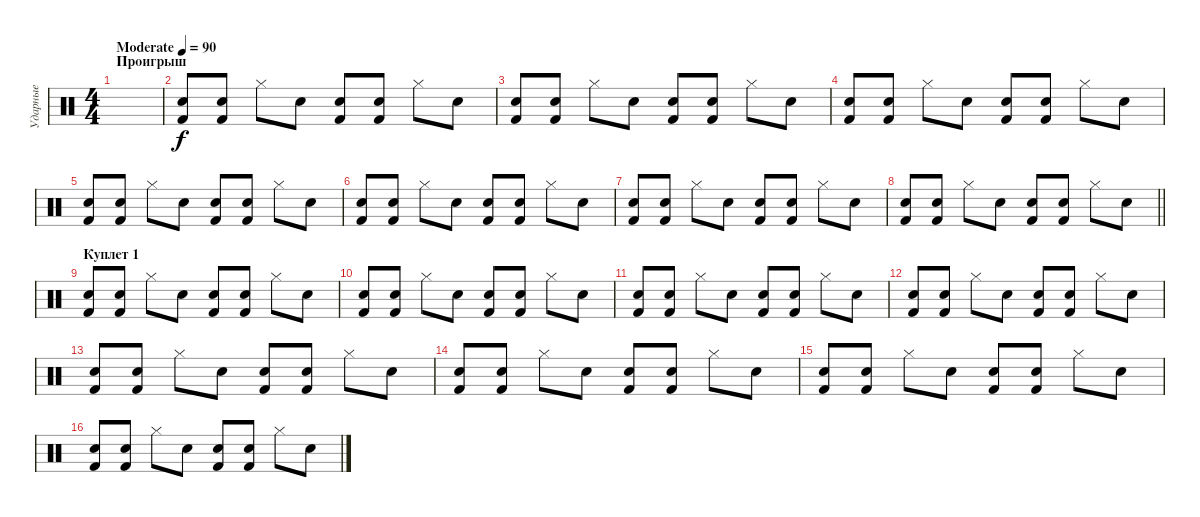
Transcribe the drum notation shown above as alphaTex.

\track ("Ударные" "Ударные") {instrument percussion}
\staff {score}
\articulation defaults
\ts (4 4)
\section ("" "Проигрыш")
\tempo (90 "Moderate")
\clef neutral
\ks c
|
("Kick (hit) 2" "Snare (hit) 2").8 ("Kick (hit) 2" "Snare (hit) 2").8 "Hi-Hat (closed)".8 "Snare (hit) 2".8 ("Kick (hit) 2" "Snare (hit) 2").8 ("Kick (hit) 2" "Snare (hit) 2").8 "Hi-Hat (closed)".8 "Snare (hit) 2".8 |
("Kick (hit) 2" "Snare (hit) 2").8 ("Kick (hit) 2" "Snare (hit) 2").8 "Hi-Hat (closed)".8 "Snare (hit) 2".8 ("Kick (hit) 2" "Snare (hit) 2").8 ("Kick (hit) 2" "Snare (hit) 2").8 "Hi-Hat (closed)".8 "Snare (hit) 2".8 |
("Kick (hit) 2" "Snare (hit) 2").8 ("Kick (hit) 2" "Snare (hit) 2").8 "Hi-Hat (closed)".8 "Snare (hit) 2".8 ("Kick (hit) 2" "Snare (hit) 2").8 ("Kick (hit) 2" "Snare (hit) 2").8 "Hi-Hat (closed)".8 "Snare (hit) 2".8 |
("Kick (hit) 2" "Snare (hit) 2").8 ("Kick (hit) 2" "Snare (hit) 2").8 "Hi-Hat (closed)".8 "Snare (hit) 2".8 ("Kick (hit) 2" "Snare (hit) 2").8 ("Kick (hit) 2" "Snare (hit) 2").8 "Hi-Hat (closed)".8 "Snare (hit) 2".8 |
("Kick (hit) 2" "Snare (hit) 2").8 ("Kick (hit) 2" "Snare (hit) 2").8 "Hi-Hat (closed)".8 "Snare (hit) 2".8 ("Kick (hit) 2" "Snare (hit) 2").8 ("Kick (hit) 2" "Snare (hit) 2").8 "Hi-Hat (closed)".8 "Snare (hit) 2".8 |
("Kick (hit) 2" "Snare (hit) 2").8 ("Kick (hit) 2" "Snare (hit) 2").8 "Hi-Hat (closed)".8 "Snare (hit) 2".8 ("Kick (hit) 2" "Snare (hit) 2").8 ("Kick (hit) 2" "Snare (hit) 2").8 "Hi-Hat (closed)".8 "Snare (hit) 2".8 |
\barLineRight lightlight
("Kick (hit) 2" "Snare (hit) 2").8 ("Kick (hit) 2" "Snare (hit) 2").8 "Hi-Hat (closed)".8 "Snare (hit) 2".8 ("Kick (hit) 2" "Snare (hit) 2").8 ("Kick (hit) 2" "Snare (hit) 2").8 "Hi-Hat (closed)".8 "Snare (hit) 2".8 |
\section ("" "Куплет 1")
("Kick (hit) 2" "Snare (hit) 2").8 ("Kick (hit) 2" "Snare (hit) 2").8 "Hi-Hat (closed)".8 "Snare (hit) 2".8 ("Kick (hit) 2" "Snare (hit) 2").8 ("Kick (hit) 2" "Snare (hit) 2").8 "Hi-Hat (closed)".8 "Snare (hit) 2".8 |
("Kick (hit) 2" "Snare (hit) 2").8 ("Kick (hit) 2" "Snare (hit) 2").8 "Hi-Hat (closed)".8 "Snare (hit) 2".8 ("Kick (hit) 2" "Snare (hit) 2").8 ("Kick (hit) 2" "Snare (hit) 2").8 "Hi-Hat (closed)".8 "Snare (hit) 2".8 |
("Kick (hit) 2" "Snare (hit) 2").8 ("Kick (hit) 2" "Snare (hit) 2").8 "Hi-Hat (closed)".8 "Snare (hit) 2".8 ("Kick (hit) 2" "Snare (hit) 2").8 ("Kick (hit) 2" "Snare (hit) 2").8 "Hi-Hat (closed)".8 "Snare (hit) 2".8 |
("Kick (hit) 2" "Snare (hit) 2").8 ("Kick (hit) 2" "Snare (hit) 2").8 "Hi-Hat (closed)".8 "Snare (hit) 2".8 ("Kick (hit) 2" "Snare (hit) 2").8 ("Kick (hit) 2" "Snare (hit) 2").8 "Hi-Hat (closed)".8 "Snare (hit) 2".8 |
("Kick (hit) 2" "Snare (hit) 2").8 ("Kick (hit) 2" "Snare (hit) 2").8 "Hi-Hat (closed)".8 "Snare (hit) 2".8 ("Kick (hit) 2" "Snare (hit) 2").8 ("Kick (hit) 2" "Snare (hit) 2").8 "Hi-Hat (closed)".8 "Snare (hit) 2".8 |
("Kick (hit) 2" "Snare (hit) 2").8 ("Kick (hit) 2" "Snare (hit) 2").8 "Hi-Hat (closed)".8 "Snare (hit) 2".8 ("Kick (hit) 2" "Snare (hit) 2").8 ("Kick (hit) 2" "Snare (hit) 2").8 "Hi-Hat (closed)".8 "Snare (hit) 2".8 |
("Kick (hit) 2" "Snare (hit) 2").8 ("Kick (hit) 2" "Snare (hit) 2").8 "Hi-Hat (closed)".8 "Snare (hit) 2".8 ("Kick (hit) 2" "Snare (hit) 2").8 ("Kick (hit) 2" "Snare (hit) 2").8 "Hi-Hat (closed)".8 "Snare (hit) 2".8 |
("Kick (hit) 2" "Snare (hit) 2").8 ("Kick (hit) 2" "Snare (hit) 2").8 "Hi-Hat (closed)".8 "Snare (hit) 2".8 ("Kick (hit) 2" "Snare (hit) 2").8 ("Kick (hit) 2" "Snare (hit) 2").8 "Hi-Hat (closed)".8 "Snare (hit) 2".8
